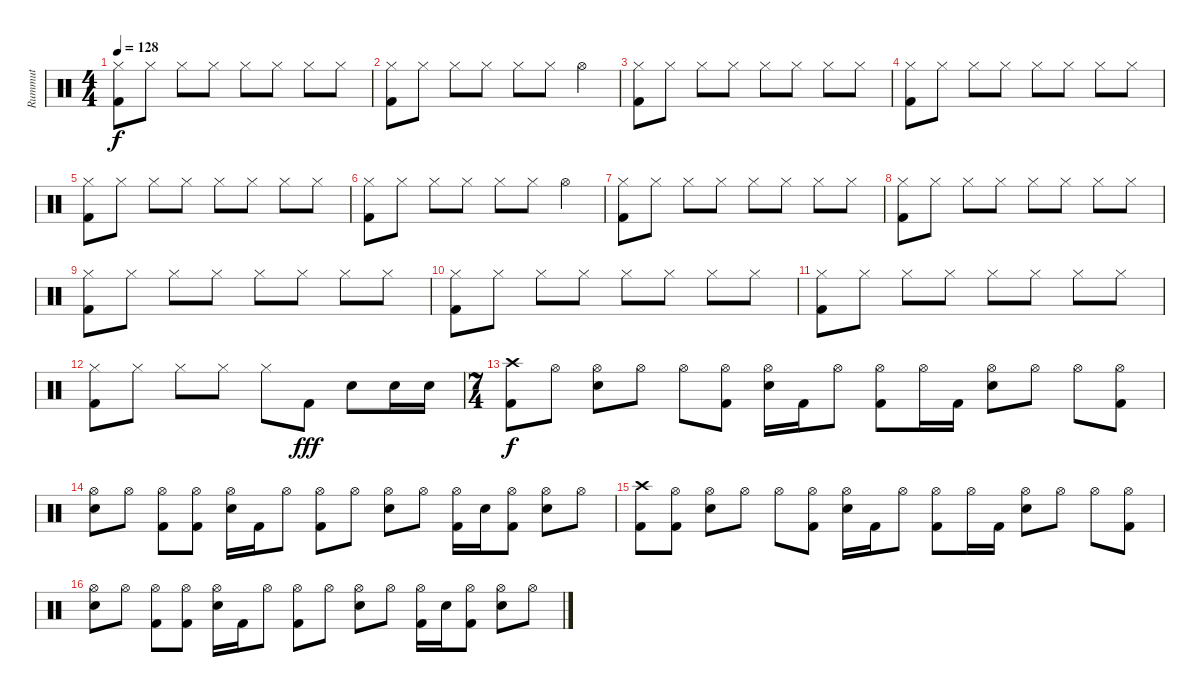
\track ("Rummut" "Rummut") {instrument percussion}
\staff {score}
\articulation defaults
\ts (4 4)
\tempo 128
\clef neutral
\ks aminor
("Hi-Hat (closed)" "Kick (hit) 2").8{dy f} "Hi-Hat (closed)".8 "Hi-Hat (closed)".8 "Hi-Hat (closed)".8 "Hi-Hat (closed)".8 "Hi-Hat (closed)".8 "Hi-Hat (closed)".8 "Hi-Hat (closed)".8 |
("Hi-Hat (closed)" "Kick (hit) 2").8 "Hi-Hat (closed)".8 "Hi-Hat (closed)".8 "Hi-Hat (closed)".8 "Hi-Hat (closed)".8 "Hi-Hat (closed)".8 "Hi-Hat (open)".4 |
("Hi-Hat (closed)" "Kick (hit) 2").8 "Hi-Hat (closed)".8 "Hi-Hat (closed)".8 "Hi-Hat (closed)".8 "Hi-Hat (closed)".8 "Hi-Hat (closed)".8 "Hi-Hat (closed)".8 "Hi-Hat (closed)".8 |
("Hi-Hat (closed)" "Kick (hit) 2").8 "Hi-Hat (closed)".8 "Hi-Hat (closed)".8 "Hi-Hat (closed)".8 "Hi-Hat (closed)".8 "Hi-Hat (closed)".8 "Hi-Hat (closed)".8 "Hi-Hat (closed)".8 |
("Hi-Hat (closed)" "Kick (hit) 2").8 "Hi-Hat (closed)".8 "Hi-Hat (closed)".8 "Hi-Hat (closed)".8 "Hi-Hat (closed)".8 "Hi-Hat (closed)".8 "Hi-Hat (closed)".8 "Hi-Hat (closed)".8 |
("Hi-Hat (closed)" "Kick (hit) 2").8 "Hi-Hat (closed)".8 "Hi-Hat (closed)".8 "Hi-Hat (closed)".8 "Hi-Hat (closed)".8 "Hi-Hat (closed)".8 "Hi-Hat (open)".4 |
("Hi-Hat (closed)" "Kick (hit) 2").8 "Hi-Hat (closed)".8 "Hi-Hat (closed)".8 "Hi-Hat (closed)".8 "Hi-Hat (closed)".8 "Hi-Hat (closed)".8 "Hi-Hat (closed)".8 "Hi-Hat (closed)".8 |
("Hi-Hat (closed)" "Kick (hit) 2").8 "Hi-Hat (closed)".8 "Hi-Hat (closed)".8 "Hi-Hat (closed)".8 "Hi-Hat (closed)".8 "Hi-Hat (closed)".8 "Hi-Hat (closed)".8 "Hi-Hat (closed)".8 |
("Hi-Hat (closed)" "Kick (hit) 2").8 "Hi-Hat (closed)".8 "Hi-Hat (closed)".8 "Hi-Hat (closed)".8 "Hi-Hat (closed)".8 "Hi-Hat (closed)".8 "Hi-Hat (closed)".8 "Hi-Hat (closed)".8 |
("Hi-Hat (closed)" "Kick (hit) 2").8 "Hi-Hat (closed)".8 "Hi-Hat (closed)".8 "Hi-Hat (closed)".8 "Hi-Hat (closed)".8 "Hi-Hat (closed)".8 "Hi-Hat (closed)".8 "Hi-Hat (closed)".8 |
("Hi-Hat (closed)" "Kick (hit) 2").8 "Hi-Hat (closed)".8 "Hi-Hat (closed)".8 "Hi-Hat (closed)".8 "Hi-Hat (closed)".8 "Hi-Hat (closed)".8 "Hi-Hat (closed)".8 "Hi-Hat (closed)".8 |
("Hi-Hat (closed)" "Kick (hit) 2").8 "Hi-Hat (closed)".8 "Hi-Hat (closed)".8 "Hi-Hat (closed)".8 "Hi-Hat (closed)".8 "Kick (hit) 2".8{dy fff} "Electric Snare (hit)".8 "Electric Snare (hit)".16 "Electric Snare (hit)".16 |
\ts (7 4)
("Crash high (hit)" "Kick (hit) 2").8{dy f} "Hi-Hat (open)".8 ("Hi-Hat (open)" "Electric Snare (hit)").8 "Hi-Hat (open)".8 "Hi-Hat (open)".8 ("Hi-Hat (open)" "Kick (hit) 2").8 ("Hi-Hat (open)" "Electric Snare (hit)").16 "Kick (hit) 2".16 "Hi-Hat (open)".8 ("Hi-Hat (open)" "Kick (hit) 2").8 "Hi-Hat (open)".16 "Kick (hit) 2".16 ("Hi-Hat (open)" "Electric Snare (hit)").8 "Hi-Hat (open)".8 "Hi-Hat (open)".8 ("Hi-Hat (open)" "Kick (hit) 2").8 |
("Hi-Hat (open)" "Electric Snare (hit)").8 "Hi-Hat (open)".8 ("Hi-Hat (open)" "Kick (hit) 2").8 ("Hi-Hat (open)" "Kick (hit) 2").8 ("Hi-Hat (open)" "Electric Snare (hit)").16 "Kick (hit) 2".16 "Hi-Hat (open)".8 ("Hi-Hat (open)" "Kick (hit) 2").8 "Hi-Hat (open)".8 ("Hi-Hat (open)" "Electric Snare (hit)").8 "Hi-Hat (open)".8 ("Hi-Hat (open)" "Kick (hit) 2").16 "Electric Snare (hit)".16 ("Hi-Hat (open)" "Kick (hit) 2").8 ("Hi-Hat (open)" "Electric Snare (hit)").8 "Hi-Hat (open)".8 |
("Crash high (hit)" "Kick (hit) 2").8 ("Hi-Hat (open)" "Kick (hit) 2").8 ("Hi-Hat (open)" "Electric Snare (hit)").8 "Hi-Hat (open)".8 "Hi-Hat (open)".8 ("Hi-Hat (open)" "Kick (hit) 2").8 ("Hi-Hat (open)" "Electric Snare (hit)").16 "Kick (hit) 2".16 "Hi-Hat (open)".8 ("Hi-Hat (open)" "Kick (hit) 2").8 "Hi-Hat (open)".16 "Kick (hit) 2".16 ("Hi-Hat (open)" "Electric Snare (hit)").8 "Hi-Hat (open)".8 "Hi-Hat (open)".8 ("Hi-Hat (open)" "Kick (hit) 2").8 |
("Hi-Hat (open)" "Electric Snare (hit)").8 "Hi-Hat (open)".8 ("Hi-Hat (open)" "Kick (hit) 2").8 ("Hi-Hat (open)" "Kick (hit) 2").8 ("Hi-Hat (open)" "Electric Snare (hit)").16 "Kick (hit) 2".16 "Hi-Hat (open)".8 ("Hi-Hat (open)" "Kick (hit) 2").8 "Hi-Hat (open)".8 ("Hi-Hat (open)" "Electric Snare (hit)").8 "Hi-Hat (open)".8 ("Hi-Hat (open)" "Kick (hit) 2").16 "Electric Snare (hit)".16 ("Hi-Hat (open)" "Kick (hit) 2").8 ("Hi-Hat (open)" "Electric Snare (hit)").8 "Hi-Hat (open)".8
